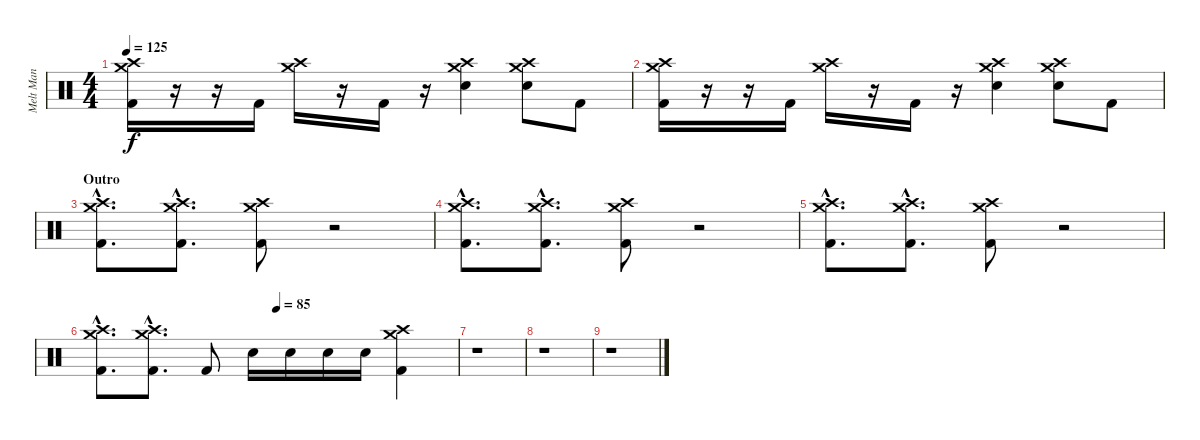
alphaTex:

\track ("Melt Man" "Melt Man") {instrument percussion}
\staff {score}
\articulation defaults
\ts (4 4)
\tempo 125
\clef neutral
\ks c
("Crash high (hit)" "Crash medium (hit)" "Kick (hit) 2").16{dy f} r.16 r.16 "Kick (hit) 2".16 ("Crash high (hit)" "Crash medium (hit)").16 r.16 "Kick (hit) 2".16 r.16 ("Crash high (hit)" "Crash medium (hit)" "Snare (hit) 2").4 ("Crash high (hit)" "Crash medium (hit)" "Snare (hit) 2").8 "Kick (hit) 2".8 |
("Crash high (hit)" "Crash medium (hit)" "Kick (hit) 2").16 r.16 r.16 "Kick (hit) 2".16 ("Crash high (hit)" "Crash medium (hit)").16 r.16 "Kick (hit) 2".16 r.16 ("Crash high (hit)" "Crash medium (hit)" "Snare (hit) 2").4 ("Crash high (hit)" "Crash medium (hit)" "Snare (hit) 2").8 "Kick (hit) 2".8 |
\section ("" "Outro")
("Crash high (hit)"{hac} "Crash medium (hit)"{hac} "Kick (hit) 2"{hac}).8{d} ("Crash high (hit)"{hac} "Crash medium (hit)"{hac} "Kick (hit) 2"{hac}).8{d} ("Crash high (hit)" "Crash medium (hit)" "Kick (hit) 2").8 r.2 |
("Crash high (hit)"{hac} "Crash medium (hit)"{hac} "Kick (hit) 2"{hac}).8{d} ("Crash high (hit)"{hac} "Crash medium (hit)"{hac} "Kick (hit) 2"{hac}).8{d} ("Crash high (hit)" "Crash medium (hit)" "Kick (hit) 2").8 r.2 |
("Crash high (hit)"{hac} "Crash medium (hit)"{hac} "Kick (hit) 2"{hac}).8{d} ("Crash high (hit)"{hac} "Crash medium (hit)"{hac} "Kick (hit) 2"{hac}).8{d} ("Crash high (hit)" "Crash medium (hit)" "Kick (hit) 2").8 r.2 |
\tempo (85 0.5)
("Crash high (hit)"{hac} "Crash medium (hit)"{hac} "Kick (hit) 2"{hac}).8{d} ("Crash high (hit)"{hac} "Crash medium (hit)"{hac} "Kick (hit) 2"{hac}).8{d} "Kick (hit) 2".8 "Snare (hit) 2".16 "Snare (hit) 2".16 "Snare (hit) 2".16 "Snare (hit) 2".16 ("Crash medium (hit)" "Crash high (hit)" "Kick (hit) 2").4 |
r.1 |
r.1 |
r.1
